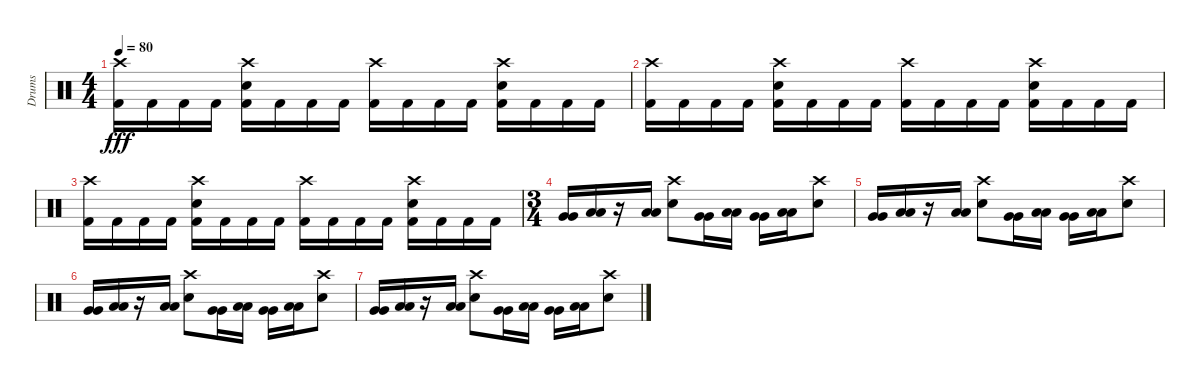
\track ("Drums" "Drums") {instrument percussion}
\staff {score}
\articulation defaults
\ts (4 4)
\tempo 80
\clef neutral
\ks c
("Crash high (hit)" "Kick (hit) 2").16{dy fff} "Kick (hit) 2".16 "Kick (hit) 2".16 "Kick (hit) 2".16 ("Crash high (hit)" "Electric Snare (hit)" "Kick (hit) 2").16 "Kick (hit) 2".16 "Kick (hit) 2".16 "Kick (hit) 2".16 ("Crash high (hit)" "Kick (hit) 2").16 "Kick (hit) 2".16 "Kick (hit) 2".16 "Kick (hit) 2".16 ("Crash high (hit)" "Electric Snare (hit)" "Kick (hit) 2").16 "Kick (hit) 2".16 "Kick (hit) 2".16 "Kick (hit) 2".16 |
("Crash high (hit)" "Kick (hit) 2").16 "Kick (hit) 2".16 "Kick (hit) 2".16 "Kick (hit) 2".16 ("Crash high (hit)" "Electric Snare (hit)" "Kick (hit) 2").16 "Kick (hit) 2".16 "Kick (hit) 2".16 "Kick (hit) 2".16 ("Crash high (hit)" "Kick (hit) 2").16 "Kick (hit) 2".16 "Kick (hit) 2".16 "Kick (hit) 2".16 ("Crash high (hit)" "Electric Snare (hit)" "Kick (hit) 2").16 "Kick (hit) 2".16 "Kick (hit) 2".16 "Kick (hit) 2".16 |
("Crash high (hit)" "Kick (hit) 2").16 "Kick (hit) 2".16 "Kick (hit) 2".16 "Kick (hit) 2".16 ("Crash high (hit)" "Electric Snare (hit)" "Kick (hit) 2").16 "Kick (hit) 2".16 "Kick (hit) 2".16 "Kick (hit) 2".16 ("Crash high (hit)" "Kick (hit) 2").16 "Kick (hit) 2".16 "Kick (hit) 2".16 "Kick (hit) 2".16 ("Crash high (hit)" "Electric Snare (hit)" "Kick (hit) 2").16 "Kick (hit) 2".16 "Kick (hit) 2".16 "Kick (hit) 2".16 |
\ts (3 4)
("Very Low Tom (hit)" "Very Low Tom (hit)").16 ("Low Floor Tom (hit)" "Low Floor Tom (hit)").16 r.16 ("Low Floor Tom (hit)" "Low Floor Tom (hit)").16 ("Crash high (hit)" "Electric Snare (hit)").8 ("Very Low Tom (hit)" "Very Low Tom (hit)").16 ("Low Floor Tom (hit)" "Low Floor Tom (hit)").16 ("Very Low Tom (hit)" "Very Low Tom (hit)").16 ("Low Floor Tom (hit)" "Low Floor Tom (hit)").16 ("Crash high (hit)" "Electric Snare (hit)").8 |
("Very Low Tom (hit)" "Very Low Tom (hit)").16 ("Low Floor Tom (hit)" "Low Floor Tom (hit)").16 r.16 ("Low Floor Tom (hit)" "Low Floor Tom (hit)").16 ("Crash high (hit)" "Electric Snare (hit)").8 ("Very Low Tom (hit)" "Very Low Tom (hit)").16 ("Low Floor Tom (hit)" "Low Floor Tom (hit)").16 ("Very Low Tom (hit)" "Very Low Tom (hit)").16 ("Low Floor Tom (hit)" "Low Floor Tom (hit)").16 ("Crash high (hit)" "Electric Snare (hit)").8 |
("Very Low Tom (hit)" "Very Low Tom (hit)").16 ("Low Floor Tom (hit)" "Low Floor Tom (hit)").16 r.16 ("Low Floor Tom (hit)" "Low Floor Tom (hit)").16 ("Crash high (hit)" "Electric Snare (hit)").8 ("Very Low Tom (hit)" "Very Low Tom (hit)").16 ("Low Floor Tom (hit)" "Low Floor Tom (hit)").16 ("Very Low Tom (hit)" "Very Low Tom (hit)").16 ("Low Floor Tom (hit)" "Low Floor Tom (hit)").16 ("Crash high (hit)" "Electric Snare (hit)").8 |
("Very Low Tom (hit)" "Very Low Tom (hit)").16 ("Low Floor Tom (hit)" "Low Floor Tom (hit)").16 r.16 ("Low Floor Tom (hit)" "Low Floor Tom (hit)").16 ("Crash high (hit)" "Electric Snare (hit)").8 ("Very Low Tom (hit)" "Very Low Tom (hit)").16 ("Low Floor Tom (hit)" "Low Floor Tom (hit)").16 ("Very Low Tom (hit)" "Very Low Tom (hit)").16 ("Low Floor Tom (hit)" "Low Floor Tom (hit)").16 ("Crash high (hit)" "Electric Snare (hit)").8
